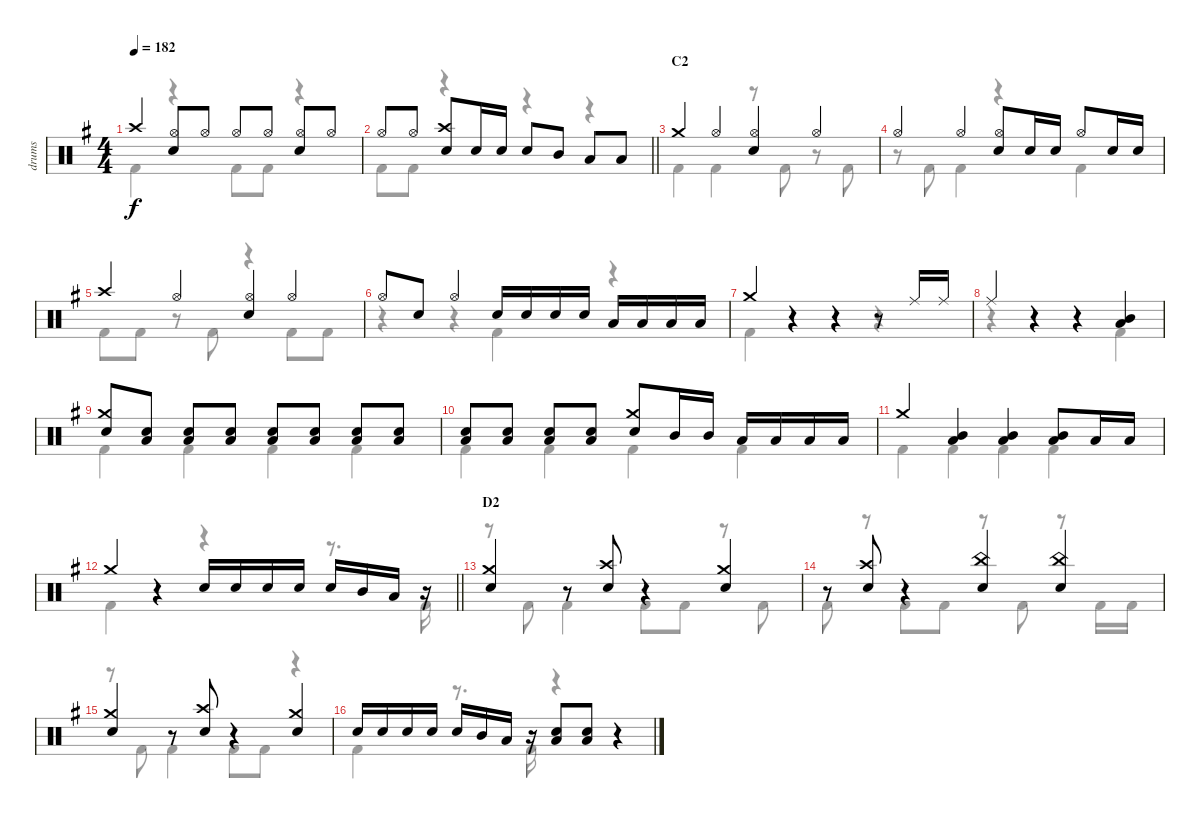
\track ("drums" "drums") {instrument percussion}
\staff {score}
\articulation defaults
\voice
\ts (4 4)
\tempo 182
\clef neutral
\ks g "Crash high (hit)".4{dy f}
("Hi-Hat (open)" "Snare (hit) 2").8 "Hi-Hat (open)".8 "Hi-Hat (open)".8 "Hi-Hat (open)".8 ("Hi-Hat (open)" "Snare (hit) 2").8 "Hi-Hat (open)".8 |
\barLineRight lightlight "Hi-Hat (open)".8 "Hi-Hat (open)".8
("Crash high (hit)" "Snare (hit) 2").8 "Snare (hit) 2".16 "Snare (hit) 2".16 "Snare (hit) 2".8 "Mid Tom (hit)".8 "Low Tom (hit)".8 "Low Floor Tom (hit)".8 |
\section ("" "C2")
"Crash medium (hit)".4 "Hi-Hat (open)".4 ("Hi-Hat (open)" "Snare (hit) 2").4 "Hi-Hat (open)".4 |
"Hi-Hat (open)".4 "Hi-Hat (open)".4 ("Hi-Hat (open)" "Snare (hit) 2").8 "Snare (hit) 2".16 "Snare (hit) 2".16 "Hi-Hat (open)".8 "Snare (hit) 2".16 "Snare (hit) 2".16 |
"Crash high (hit)".4 "Hi-Hat (open)".4 ("Hi-Hat (open)" "Snare (hit) 2").4 "Hi-Hat (open)".4 |
"Hi-Hat (open)".8 "Snare (hit) 2".8 "Hi-Hat (open)".4 "Snare (hit) 2".16 "Snare (hit) 2".16 "Snare (hit) 2".16 "Snare (hit) 2".16 "Low Tom (hit)".16 "Low Tom (hit)".16 "Low Floor Tom (hit)".16 "Low Floor Tom (hit)".16 |
"Crash medium (hit)".4 r.4 r.4 r.8 "Ride (middle)".16 "Ride (middle)".16 |
"Ride (middle)".4 r.4 r.4 ("Mid Tom (hit)" "Low Floor Tom (hit)").4 |
("Crash medium (hit)" "Snare (hit) 2").8 ("Snare (hit) 2" "Low Floor Tom (hit)").8 ("Snare (hit) 2" "Low Floor Tom (hit)").8 ("Snare (hit) 2" "Low Floor Tom (hit)").8 ("Snare (hit) 2" "Low Floor Tom (hit)").8 ("Snare (hit) 2" "Low Floor Tom (hit)").8 ("Snare (hit) 2" "Low Floor Tom (hit)").8 ("Snare (hit) 2" "Low Floor Tom (hit)").8 |
("Snare (hit) 2" "Low Floor Tom (hit)").8 ("Snare (hit) 2" "Low Floor Tom (hit)").8 ("Snare (hit) 2" "Low Floor Tom (hit)").8 ("Snare (hit) 2" "Low Floor Tom (hit)").8 ("Crash medium (hit)" "Snare (hit) 2").8 "Mid Tom (hit)".16 "Mid Tom (hit)".16 "Low Tom (hit)".16 "Low Tom (hit)".16 "Low Floor Tom (hit)".16 "Low Floor Tom (hit)".16 |
"Crash medium (hit)".4 ("Mid Tom (hit)" "Low Floor Tom (hit)").4 ("Mid Tom (hit)" "Low Floor Tom (hit)").4 ("Mid Tom (hit)" "Low Floor Tom (hit)").8 "Low Floor Tom (hit)".16 "Low Floor Tom (hit)".16 |
\barLineRight lightlight "Crash medium (hit)".4
r.4 "Snare (hit) 2".16 "Snare (hit) 2".16 "Snare (hit) 2".16 "Snare (hit) 2".16 "Snare (hit) 2".16 "Mid Tom (hit)".16 "Low Tom (hit)".16 r.16 |
\section ("" "D2")
("Crash medium (hit)" "Snare (hit) 2").4 r.8 ("Crash high (hit)" "Snare (hit) 2").8 r.4 ("Crash medium (hit)" "Snare (hit) 2").4 |
r.8 ("Crash high (hit)" "Snare (hit) 2").8 r.4 ("China (hit)" "Snare (hit) 2").4 ("China (hit)" "Snare (hit) 2").4 |
("Crash medium (hit)" "Snare (hit) 2").4 r.8 ("Crash high (hit)" "Snare (hit) 2").8 r.4 ("Crash medium (hit)" "Snare (hit) 2").4 |
"Snare (hit) 2".16 "Snare (hit) 2".16 "Snare (hit) 2".16 "Snare (hit) 2".16 "Snare (hit) 2".16 "Mid Tom (hit)".16 "Low Tom (hit)".16 r.16 ("Snare (hit) 2" "Low Floor Tom (hit)").8 ("Snare (hit) 2" "Low Floor Tom (hit)").8 r.4
\voice
\clef neutral
\ottava regular
\simile none
\ks g "Kick (hit) 2".4{dy f}
r.4 "Kick (hit) 2".8 "Kick (hit) 2".8 r.4 |
\barLineRight lightlight "Kick (hit) 2".8 "Kick (hit) 2".8
r.4 r.4 r.4 |
"Kick (hit) 2".4 "Kick (hit) 2".4 r.8 "Kick (hit) 2".8 r.8 "Kick (hit) 2".8 |
r.8 "Kick (hit) 2".8 "Kick (hit) 2".4 r.4 "Kick (hit) 2".4 |
"Kick (hit) 2".8 "Kick (hit) 2".8 r.8 "Kick (hit) 2".8 r.4 "Kick (hit) 2".8 "Kick (hit) 2".8 |
r.4 r.4 "Kick (hit) 2".4 r.4 |
"Kick (hit) 2".4 r.4 r.4 r.4 |
r.4 r.4 r.4 "Kick (hit) 2".4 |
"Kick (hit) 2".4 "Kick (hit) 2".4 "Kick (hit) 2".4 "Kick (hit) 2".4 |
"Kick (hit) 2".4 "Kick (hit) 2".4 "Kick (hit) 2".4 "Kick (hit) 2".4 |
"Kick (hit) 2".4 "Kick (hit) 2".4 "Kick (hit) 2".4 "Kick (hit) 2".4 |
\barLineRight lightlight "Kick (hit) 2".4
r.4 r.4 r.8{d} "Kick (hit) 2".16 |
r.8 "Kick (hit) 2".8 "Kick (hit) 2".4 "Kick (hit) 2".8 "Kick (hit) 2".8 r.8 "Kick (hit) 2".8 |
"Kick (hit) 2".8 r.8 "Kick (hit) 2".8 "Kick (hit) 2".8 r.8 "Kick (hit) 2".8 r.8 "Kick (hit) 2".16 "Kick (hit) 2".16 |
r.8 "Kick (hit) 2".8 "Kick (hit) 2".4 "Kick (hit) 2".8 "Kick (hit) 2".8 r.4 |
"Kick (hit) 2".4 r.8{d} "Kick (hit) 2".16 r.4 r.4
